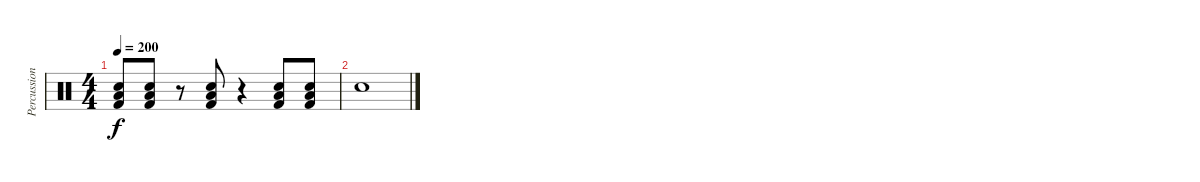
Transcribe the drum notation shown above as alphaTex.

\track ("Percussions" "Percussion") {instrument percussion}
\staff {score}
\articulation defaults
\ts (4 4)
\tempo 200
\clef neutral
\ks c
("Low Floor Tom (hit)" "Snare (hit) 2" "Kick (hit) 2").8{dy f} ("Low Floor Tom (hit)" "Snare (hit) 2" "Kick (hit) 2").8 r.8 ("Low Floor Tom (hit)" "Snare (hit) 2" "Kick (hit) 2").8 r.4 ("Low Floor Tom (hit)" "Snare (hit) 2" "Kick (hit) 2").8 ("Low Floor Tom (hit)" "Snare (hit) 2" "Kick (hit) 2").8 |
"Snare (hit)".1
